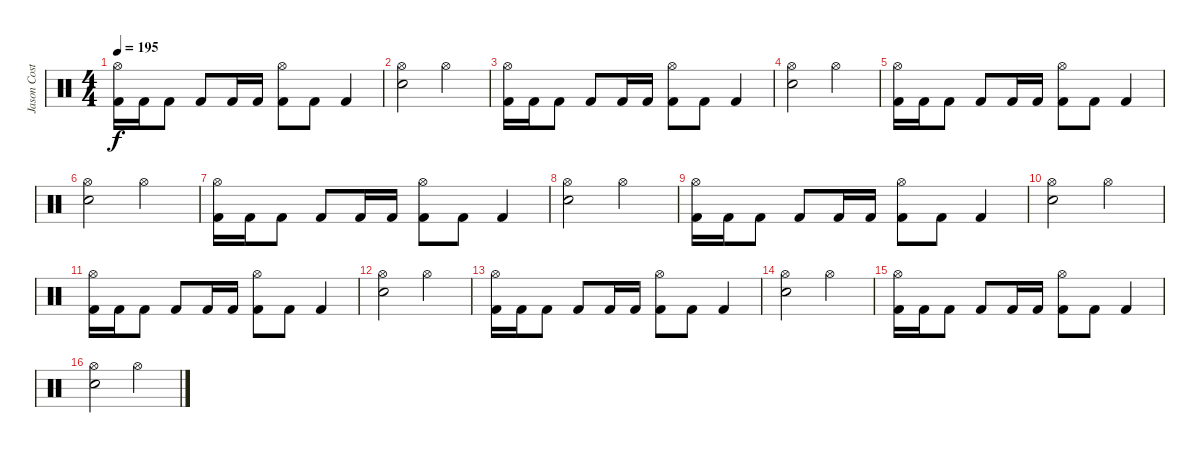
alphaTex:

\track ("Jason Costa" "Jason Cost") {instrument percussion}
\staff {score}
\articulation defaults
\ts (4 4)
\tempo 195
\clef neutral
\ks c
("Hi-Hat (open)" "Kick (hit) 2").16{dy f} "Kick (hit) 2".16 "Kick (hit) 2".8 "Kick (hit) 2".8 "Kick (hit) 2".16 "Kick (hit) 2".16 ("Hi-Hat (open)" "Kick (hit) 2").8 "Kick (hit) 2".8 "Kick (hit) 2".4 |
("Hi-Hat (open)" "Electric Snare (hit)").2 "Hi-Hat (open)".2 |
("Hi-Hat (open)" "Kick (hit) 2").16 "Kick (hit) 2".16 "Kick (hit) 2".8 "Kick (hit) 2".8 "Kick (hit) 2".16 "Kick (hit) 2".16 ("Hi-Hat (open)" "Kick (hit) 2").8 "Kick (hit) 2".8 "Kick (hit) 2".4 |
("Hi-Hat (open)" "Electric Snare (hit)").2 "Hi-Hat (open)".2 |
("Hi-Hat (open)" "Kick (hit) 2").16{volume 9} "Kick (hit) 2".16 "Kick (hit) 2".8 "Kick (hit) 2".8 "Kick (hit) 2".16 "Kick (hit) 2".16 ("Hi-Hat (open)" "Kick (hit) 2").8 "Kick (hit) 2".8 "Kick (hit) 2".4 |
("Hi-Hat (open)" "Electric Snare (hit)").2 "Hi-Hat (open)".2 |
("Hi-Hat (open)" "Kick (hit) 2").16 "Kick (hit) 2".16 "Kick (hit) 2".8 "Kick (hit) 2".8 "Kick (hit) 2".16 "Kick (hit) 2".16 ("Hi-Hat (open)" "Kick (hit) 2").8 "Kick (hit) 2".8 "Kick (hit) 2".4 |
("Hi-Hat (open)" "Electric Snare (hit)").2 "Hi-Hat (open)".2 |
("Hi-Hat (open)" "Kick (hit) 2").16{volume 5} "Kick (hit) 2".16 "Kick (hit) 2".8 "Kick (hit) 2".8 "Kick (hit) 2".16 "Kick (hit) 2".16 ("Hi-Hat (open)" "Kick (hit) 2").8 "Kick (hit) 2".8 "Kick (hit) 2".4 |
("Hi-Hat (open)" "Electric Snare (hit)").2 "Hi-Hat (open)".2 |
("Hi-Hat (open)" "Kick (hit) 2").16 "Kick (hit) 2".16 "Kick (hit) 2".8 "Kick (hit) 2".8 "Kick (hit) 2".16 "Kick (hit) 2".16 ("Hi-Hat (open)" "Kick (hit) 2").8 "Kick (hit) 2".8 "Kick (hit) 2".4 |
("Hi-Hat (open)" "Electric Snare (hit)").2 "Hi-Hat (open)".2 |
("Hi-Hat (open)" "Kick (hit) 2").16{volume 0} "Kick (hit) 2".16 "Kick (hit) 2".8 "Kick (hit) 2".8 "Kick (hit) 2".16 "Kick (hit) 2".16 ("Hi-Hat (open)" "Kick (hit) 2").8 "Kick (hit) 2".8 "Kick (hit) 2".4 |
("Hi-Hat (open)" "Electric Snare (hit)").2 "Hi-Hat (open)".2 |
("Hi-Hat (open)" "Kick (hit) 2").16 "Kick (hit) 2".16 "Kick (hit) 2".8 "Kick (hit) 2".8 "Kick (hit) 2".16 "Kick (hit) 2".16 ("Hi-Hat (open)" "Kick (hit) 2").8 "Kick (hit) 2".8 "Kick (hit) 2".4 |
("Hi-Hat (open)" "Electric Snare (hit)").2 "Hi-Hat (open)".2
